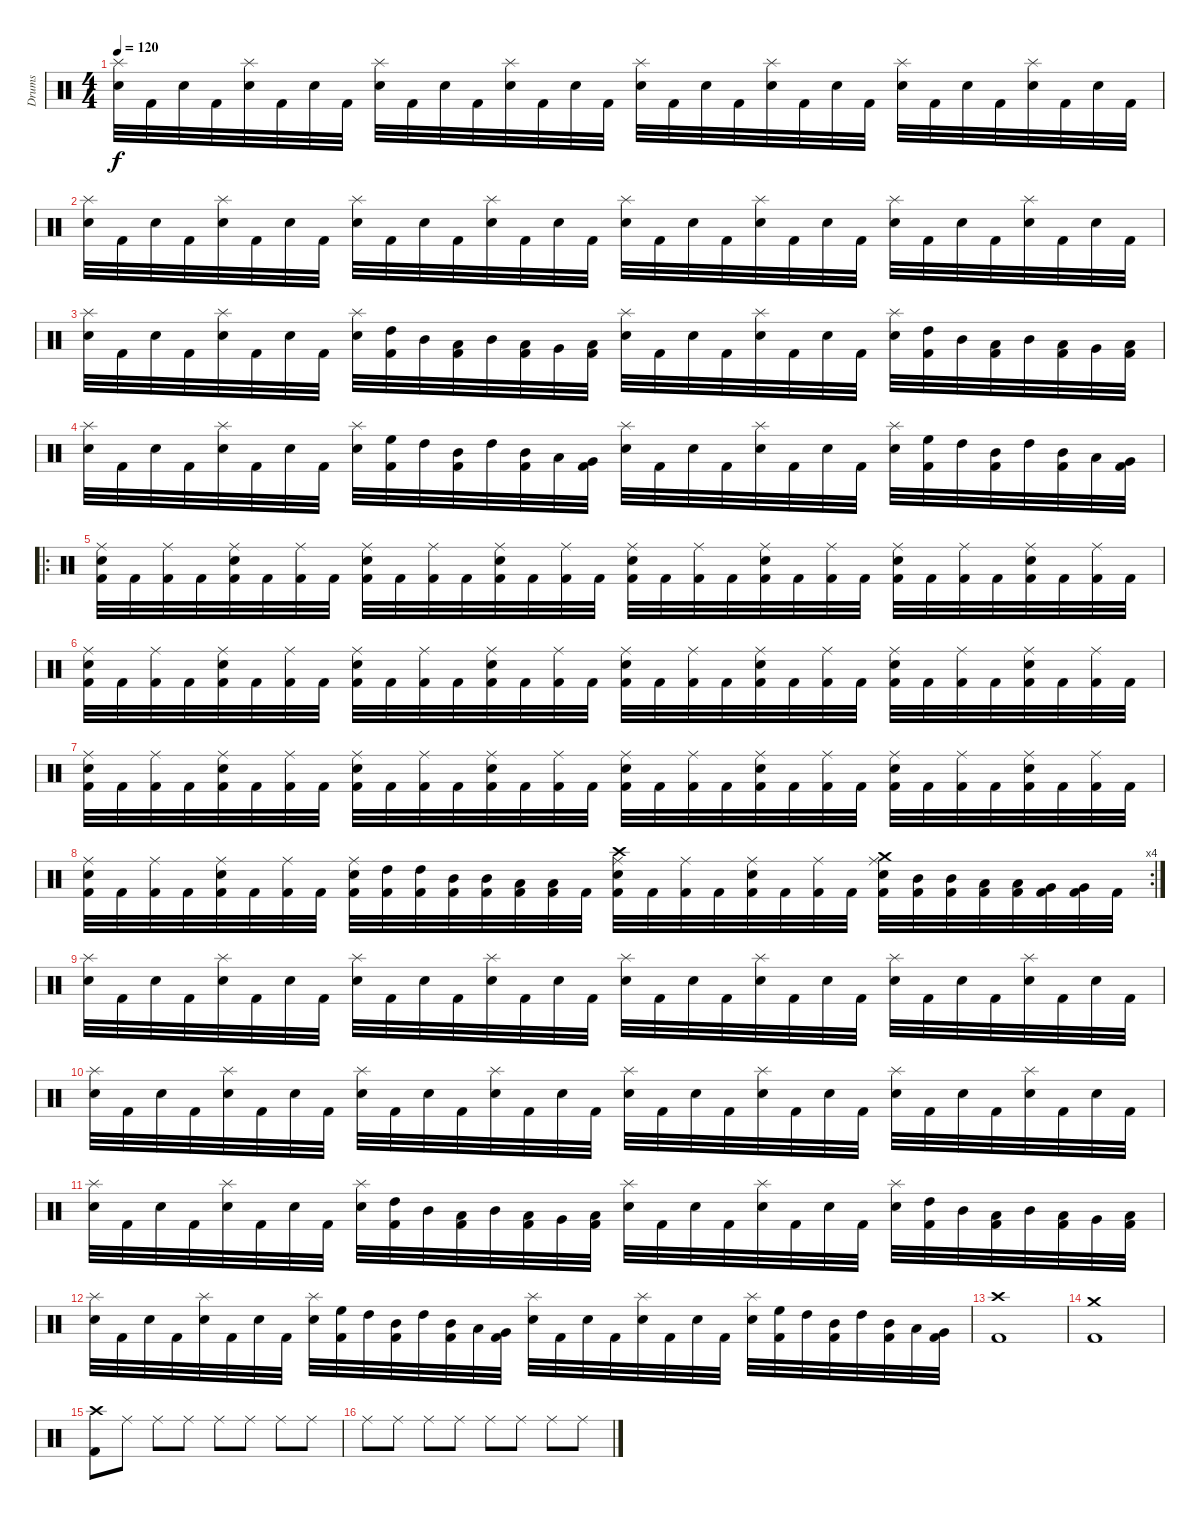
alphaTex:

\track ("Drums" "Drums") {instrument percussion}
\staff {score}
\articulation defaults
\ts (4 4)
\tempo 120
\clef neutral
\ks c
("Splash (hit)" "Snare (hit) 2").32{dy f} "Kick (hit) 2".32 "Snare (hit) 2".32 "Kick (hit) 2".32 ("Splash (hit)" "Snare (hit) 2").32 "Kick (hit) 2".32 "Snare (hit) 2".32 "Kick (hit) 2".32 ("Splash (hit)" "Snare (hit) 2").32 "Kick (hit) 2".32 "Snare (hit) 2".32 "Kick (hit) 2".32 ("Splash (hit)" "Snare (hit) 2").32 "Kick (hit) 2".32 "Snare (hit) 2".32 "Kick (hit) 2".32 ("Splash (hit)" "Snare (hit) 2").32 "Kick (hit) 2".32 "Snare (hit) 2".32 "Kick (hit) 2".32 ("Splash (hit)" "Snare (hit) 2").32 "Kick (hit) 2".32 "Snare (hit) 2".32 "Kick (hit) 2".32 ("Splash (hit)" "Snare (hit) 2").32 "Kick (hit) 2".32 "Snare (hit) 2".32 "Kick (hit) 2".32 ("Splash (hit)" "Snare (hit) 2").32 "Kick (hit) 2".32 "Snare (hit) 2".32 "Kick (hit) 2".32 |
("Splash (hit)" "Snare (hit) 2").32 "Kick (hit) 2".32 "Snare (hit) 2".32 "Kick (hit) 2".32 ("Splash (hit)" "Snare (hit) 2").32 "Kick (hit) 2".32 "Snare (hit) 2".32 "Kick (hit) 2".32 ("Splash (hit)" "Snare (hit) 2").32 "Kick (hit) 2".32 "Snare (hit) 2".32 "Kick (hit) 2".32 ("Splash (hit)" "Snare (hit) 2").32 "Kick (hit) 2".32 "Snare (hit) 2".32 "Kick (hit) 2".32 ("Splash (hit)" "Snare (hit) 2").32 "Kick (hit) 2".32 "Snare (hit) 2".32 "Kick (hit) 2".32 ("Splash (hit)" "Snare (hit) 2").32 "Kick (hit) 2".32 "Snare (hit) 2".32 "Kick (hit) 2".32 ("Splash (hit)" "Snare (hit) 2").32 "Kick (hit) 2".32 "Snare (hit) 2".32 "Kick (hit) 2".32 ("Splash (hit)" "Snare (hit) 2").32 "Kick (hit) 2".32 "Snare (hit) 2".32 "Kick (hit) 2".32 |
("Splash (hit)" "Snare (hit) 2").32 "Kick (hit) 2".32 "Snare (hit) 2".32 "Kick (hit) 2".32 ("Splash (hit)" "Snare (hit) 2").32 "Kick (hit) 2".32 "Snare (hit) 2".32 "Kick (hit) 2".32 ("Splash (hit)" "Snare (hit) 2").32 ("High Tom (hit)" "Kick (hit) 2").32 "Mid Tom (hit)".32 ("Low Tom (hit)" "Kick (hit) 2").32 "Mid Tom (hit)".32 ("Low Tom (hit)" "Kick (hit) 2").32 "Very Low Tom (hit)".32 ("Low Floor Tom (hit)" "Kick (hit) 2").32 ("Splash (hit)" "Snare (hit) 2").32 "Kick (hit) 2".32 "Snare (hit) 2".32 "Kick (hit) 2".32 ("Splash (hit)" "Snare (hit) 2").32 "Kick (hit) 2".32 "Snare (hit) 2".32 "Kick (hit) 2".32 ("Splash (hit)" "Snare (hit) 2").32 ("High Tom (hit)" "Kick (hit) 2").32 "Mid Tom (hit)".32 ("Low Tom (hit)" "Kick (hit) 2").32 "Mid Tom (hit)".32 ("Low Tom (hit)" "Kick (hit) 2").32 "Very Low Tom (hit)".32 ("Low Floor Tom (hit)" "Kick (hit) 2").32 |
("Splash (hit)" "Snare (hit) 2").32 "Kick (hit) 2".32 "Snare (hit) 2".32 "Kick (hit) 2".32 ("Splash (hit)" "Snare (hit) 2").32 "Kick (hit) 2".32 "Snare (hit) 2".32 "Kick (hit) 2".32 ("Splash (hit)" "Snare (hit) 2").32 ("High Floor Tom (hit)" "Kick (hit) 2").32 "High Tom (hit)".32 ("Mid Tom (hit)" "Kick (hit) 2").32 "High Tom (hit)".32 ("Mid Tom (hit)" "Kick (hit) 2").32 "Low Tom (hit)".32 ("Very Low Tom (hit)" "Kick (hit) 2").32 ("Splash (hit)" "Snare (hit) 2").32 "Kick (hit) 2".32 "Snare (hit) 2".32 "Kick (hit) 2".32 ("Splash (hit)" "Snare (hit) 2").32 "Kick (hit) 2".32 "Snare (hit) 2".32 "Kick (hit) 2".32 ("Splash (hit)" "Snare (hit) 2").32 ("High Floor Tom (hit)" "Kick (hit) 2").32 "High Tom (hit)".32 ("Mid Tom (hit)" "Kick (hit) 2").32 "High Tom (hit)".32 ("Mid Tom (hit)" "Kick (hit) 2").32 "Low Tom (hit)".32 ("Very Low Tom (hit)" "Kick (hit) 2").32 |
\ro
("Ride (middle)" "Snare (hit) 2" "Kick (hit) 2").32 "Kick (hit) 2".32 ("Ride (middle)" "Kick (hit) 2").32 "Kick (hit) 2".32 ("Ride (middle)" "Snare (hit) 2" "Kick (hit) 2").32 "Kick (hit) 2".32 ("Ride (middle)" "Kick (hit) 2").32 "Kick (hit) 2".32 ("Ride (middle)" "Snare (hit) 2" "Kick (hit) 2").32 "Kick (hit) 2".32 ("Ride (middle)" "Kick (hit) 2").32 "Kick (hit) 2".32 ("Ride (middle)" "Snare (hit) 2" "Kick (hit) 2").32 "Kick (hit) 2".32 ("Ride (middle)" "Kick (hit) 2").32 "Kick (hit) 2".32 ("Ride (middle)" "Snare (hit) 2" "Kick (hit) 2").32 "Kick (hit) 2".32 ("Ride (middle)" "Kick (hit) 2").32 "Kick (hit) 2".32 ("Ride (middle)" "Snare (hit) 2" "Kick (hit) 2").32 "Kick (hit) 2".32 ("Ride (middle)" "Kick (hit) 2").32 "Kick (hit) 2".32 ("Ride (middle)" "Snare (hit) 2" "Kick (hit) 2").32 "Kick (hit) 2".32 ("Ride (middle)" "Kick (hit) 2").32 "Kick (hit) 2".32 ("Ride (middle)" "Snare (hit) 2" "Kick (hit) 2").32 "Kick (hit) 2".32 ("Ride (middle)" "Kick (hit) 2").32 "Kick (hit) 2".32 |
("Ride (middle)" "Snare (hit) 2" "Kick (hit) 2").32 "Kick (hit) 2".32 ("Ride (middle)" "Kick (hit) 2").32 "Kick (hit) 2".32 ("Ride (middle)" "Snare (hit) 2" "Kick (hit) 2").32 "Kick (hit) 2".32 ("Ride (middle)" "Kick (hit) 2").32 "Kick (hit) 2".32 ("Ride (middle)" "Snare (hit) 2" "Kick (hit) 2").32 "Kick (hit) 2".32 ("Ride (middle)" "Kick (hit) 2").32 "Kick (hit) 2".32 ("Ride (middle)" "Snare (hit) 2" "Kick (hit) 2").32 "Kick (hit) 2".32 ("Ride (middle)" "Kick (hit) 2").32 "Kick (hit) 2".32 ("Ride (middle)" "Snare (hit) 2" "Kick (hit) 2").32 "Kick (hit) 2".32 ("Ride (middle)" "Kick (hit) 2").32 "Kick (hit) 2".32 ("Ride (middle)" "Snare (hit) 2" "Kick (hit) 2").32 "Kick (hit) 2".32 ("Ride (middle)" "Kick (hit) 2").32 "Kick (hit) 2".32 ("Ride (middle)" "Snare (hit) 2" "Kick (hit) 2").32 "Kick (hit) 2".32 ("Ride (middle)" "Kick (hit) 2").32 "Kick (hit) 2".32 ("Ride (middle)" "Snare (hit) 2" "Kick (hit) 2").32 "Kick (hit) 2".32 ("Ride (middle)" "Kick (hit) 2").32 "Kick (hit) 2".32 |
("Ride (middle)" "Snare (hit) 2" "Kick (hit) 2").32 "Kick (hit) 2".32 ("Ride (middle)" "Kick (hit) 2").32 "Kick (hit) 2".32 ("Ride (middle)" "Snare (hit) 2" "Kick (hit) 2").32 "Kick (hit) 2".32 ("Ride (middle)" "Kick (hit) 2").32 "Kick (hit) 2".32 ("Ride (middle)" "Snare (hit) 2" "Kick (hit) 2").32 "Kick (hit) 2".32 ("Ride (middle)" "Kick (hit) 2").32 "Kick (hit) 2".32 ("Ride (middle)" "Snare (hit) 2" "Kick (hit) 2").32 "Kick (hit) 2".32 ("Ride (middle)" "Kick (hit) 2").32 "Kick (hit) 2".32 ("Ride (middle)" "Snare (hit) 2" "Kick (hit) 2").32 "Kick (hit) 2".32 ("Ride (middle)" "Kick (hit) 2").32 "Kick (hit) 2".32 ("Ride (middle)" "Snare (hit) 2" "Kick (hit) 2").32 "Kick (hit) 2".32 ("Ride (middle)" "Kick (hit) 2").32 "Kick (hit) 2".32 ("Ride (middle)" "Snare (hit) 2" "Kick (hit) 2").32 "Kick (hit) 2".32 ("Ride (middle)" "Kick (hit) 2").32 "Kick (hit) 2".32 ("Ride (middle)" "Snare (hit) 2" "Kick (hit) 2").32 "Kick (hit) 2".32 ("Ride (middle)" "Kick (hit) 2").32 "Kick (hit) 2".32 |
\rc 4
("Ride (middle)" "Snare (hit) 2" "Kick (hit) 2").32 "Kick (hit) 2".32 ("Ride (middle)" "Kick (hit) 2").32 "Kick (hit) 2".32 ("Ride (middle)" "Snare (hit) 2" "Kick (hit) 2").32 "Kick (hit) 2".32 ("Ride (middle)" "Kick (hit) 2").32 "Kick (hit) 2".32 ("Ride (middle)" "Snare (hit) 2" "Kick (hit) 2").32 ("High Tom (hit)" "Kick (hit) 2").32 ("High Tom (hit)" "Kick (hit) 2").32 ("Mid Tom (hit)" "Kick (hit) 2").32 ("Mid Tom (hit)" "Kick (hit) 2").32 ("Low Tom (hit)" "Kick (hit) 2").32 ("Low Tom (hit)" "Kick (hit) 2").32 "Kick (hit) 2".32 ("Crash high (hit)" "Ride (middle)" "Snare (hit) 2" "Kick (hit) 2").32 "Kick (hit) 2".32 ("Ride (middle)" "Kick (hit) 2").32 "Kick (hit) 2".32 ("Ride (middle)" "Snare (hit) 2" "Kick (hit) 2").32 "Kick (hit) 2".32 ("Ride (middle)" "Kick (hit) 2").32 "Kick (hit) 2".32 ("Crash medium (hit)" "Ride (middle)" "Snare (hit) 2" "Kick (hit) 2").32 ("Mid Tom (hit)" "Kick (hit) 2").32 ("Mid Tom (hit)" "Kick (hit) 2").32 ("Low Tom (hit)" "Kick (hit) 2").32 ("Low Tom (hit)" "Kick (hit) 2").32 ("Very Low Tom (hit)" "Kick (hit) 2").32 ("Very Low Tom (hit)" "Kick (hit) 2").32 "Kick (hit) 2".32 |
("Splash (hit)" "Snare (hit) 2").32 "Kick (hit) 2".32 "Snare (hit) 2".32 "Kick (hit) 2".32 ("Splash (hit)" "Snare (hit) 2").32 "Kick (hit) 2".32 "Snare (hit) 2".32 "Kick (hit) 2".32 ("Splash (hit)" "Snare (hit) 2").32 "Kick (hit) 2".32 "Snare (hit) 2".32 "Kick (hit) 2".32 ("Splash (hit)" "Snare (hit) 2").32 "Kick (hit) 2".32 "Snare (hit) 2".32 "Kick (hit) 2".32 ("Splash (hit)" "Snare (hit) 2").32 "Kick (hit) 2".32 "Snare (hit) 2".32 "Kick (hit) 2".32 ("Splash (hit)" "Snare (hit) 2").32 "Kick (hit) 2".32 "Snare (hit) 2".32 "Kick (hit) 2".32 ("Splash (hit)" "Snare (hit) 2").32 "Kick (hit) 2".32 "Snare (hit) 2".32 "Kick (hit) 2".32 ("Splash (hit)" "Snare (hit) 2").32 "Kick (hit) 2".32 "Snare (hit) 2".32 "Kick (hit) 2".32 |
("Splash (hit)" "Snare (hit) 2").32 "Kick (hit) 2".32 "Snare (hit) 2".32 "Kick (hit) 2".32 ("Splash (hit)" "Snare (hit) 2").32 "Kick (hit) 2".32 "Snare (hit) 2".32 "Kick (hit) 2".32 ("Splash (hit)" "Snare (hit) 2").32 "Kick (hit) 2".32 "Snare (hit) 2".32 "Kick (hit) 2".32 ("Splash (hit)" "Snare (hit) 2").32 "Kick (hit) 2".32 "Snare (hit) 2".32 "Kick (hit) 2".32 ("Splash (hit)" "Snare (hit) 2").32 "Kick (hit) 2".32 "Snare (hit) 2".32 "Kick (hit) 2".32 ("Splash (hit)" "Snare (hit) 2").32 "Kick (hit) 2".32 "Snare (hit) 2".32 "Kick (hit) 2".32 ("Splash (hit)" "Snare (hit) 2").32 "Kick (hit) 2".32 "Snare (hit) 2".32 "Kick (hit) 2".32 ("Splash (hit)" "Snare (hit) 2").32 "Kick (hit) 2".32 "Snare (hit) 2".32 "Kick (hit) 2".32 |
("Splash (hit)" "Snare (hit) 2").32 "Kick (hit) 2".32 "Snare (hit) 2".32 "Kick (hit) 2".32 ("Splash (hit)" "Snare (hit) 2").32 "Kick (hit) 2".32 "Snare (hit) 2".32 "Kick (hit) 2".32 ("Splash (hit)" "Snare (hit) 2").32 ("High Tom (hit)" "Kick (hit) 2").32 "Mid Tom (hit)".32 ("Low Tom (hit)" "Kick (hit) 2").32 "Mid Tom (hit)".32 ("Low Tom (hit)" "Kick (hit) 2").32 "Very Low Tom (hit)".32 ("Low Floor Tom (hit)" "Kick (hit) 2").32 ("Splash (hit)" "Snare (hit) 2").32 "Kick (hit) 2".32 "Snare (hit) 2".32 "Kick (hit) 2".32 ("Splash (hit)" "Snare (hit) 2").32 "Kick (hit) 2".32 "Snare (hit) 2".32 "Kick (hit) 2".32 ("Splash (hit)" "Snare (hit) 2").32 ("High Tom (hit)" "Kick (hit) 2").32 "Mid Tom (hit)".32 ("Low Tom (hit)" "Kick (hit) 2").32 "Mid Tom (hit)".32 ("Low Tom (hit)" "Kick (hit) 2").32 "Very Low Tom (hit)".32 ("Low Floor Tom (hit)" "Kick (hit) 2").32 |
("Splash (hit)" "Snare (hit) 2").32 "Kick (hit) 2".32 "Snare (hit) 2".32 "Kick (hit) 2".32 ("Splash (hit)" "Snare (hit) 2").32 "Kick (hit) 2".32 "Snare (hit) 2".32 "Kick (hit) 2".32 ("Splash (hit)" "Snare (hit) 2").32 ("High Floor Tom (hit)" "Kick (hit) 2").32 "High Tom (hit)".32 ("Mid Tom (hit)" "Kick (hit) 2").32 "High Tom (hit)".32 ("Mid Tom (hit)" "Kick (hit) 2").32 "Low Tom (hit)".32 ("Very Low Tom (hit)" "Kick (hit) 2").32 ("Splash (hit)" "Snare (hit) 2").32 "Kick (hit) 2".32 "Snare (hit) 2".32 "Kick (hit) 2".32 ("Splash (hit)" "Snare (hit) 2").32 "Kick (hit) 2".32 "Snare (hit) 2".32 "Kick (hit) 2".32 ("Splash (hit)" "Snare (hit) 2").32 ("High Floor Tom (hit)" "Kick (hit) 2").32 "High Tom (hit)".32 ("Mid Tom (hit)" "Kick (hit) 2").32 "High Tom (hit)".32 ("Mid Tom (hit)" "Kick (hit) 2").32 "Low Tom (hit)".32 ("Very Low Tom (hit)" "Kick (hit) 2").32 |
("Crash high (hit)" "Kick (hit) 2").1 |
("Crash medium (hit)" "Kick (hit) 2").1 |
("Crash high (hit)" "Kick (hit) 2").8 "Ride (middle)".8 "Ride (middle)".8 "Ride (middle)".8 "Ride (middle)".8 "Ride (middle)".8 "Ride (middle)".8 "Ride (middle)".8 |
"Ride (middle)".8 "Ride (middle)".8 "Ride (middle)".8 "Ride (middle)".8 "Ride (middle)".8 "Ride (middle)".8 "Ride (middle)".8 "Ride (middle)".8
